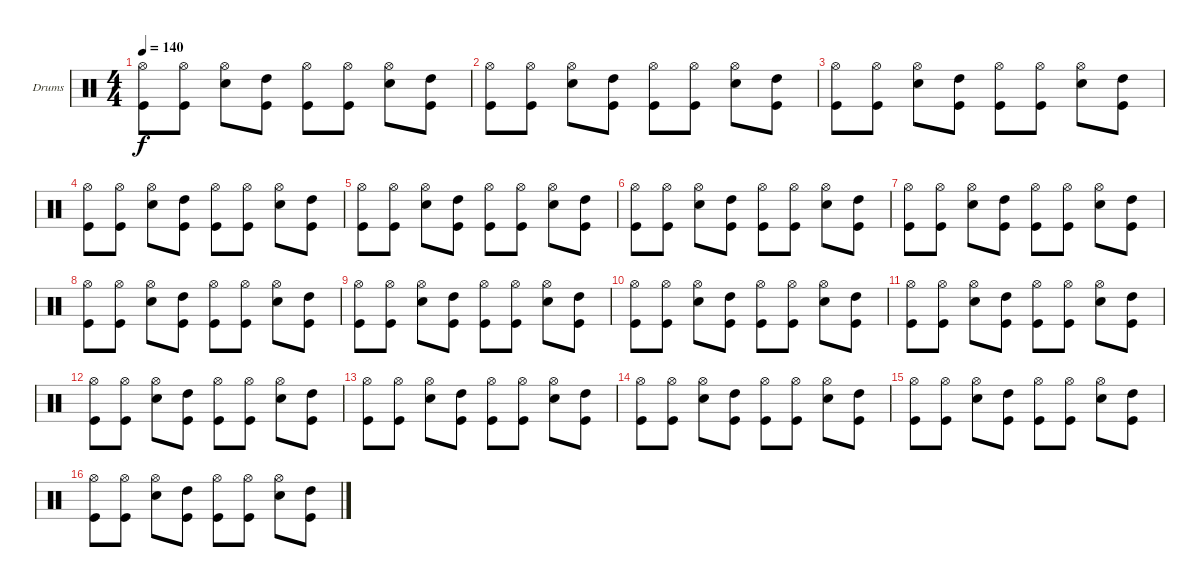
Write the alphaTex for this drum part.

\bracketExtendMode groupsimilarinstruments
\firstSystemTrackNameOrientation horizontal
\otherSystemsTrackNameOrientation horizontal
\track ("Drumkit" "Drums") {instrument percussion}
\staff {score}
\articulation defaults
\ts (4 4)
\tempo 140
\clef neutral
\ks c
("Hi-Hat (open)" "Kick (hit)").8{dy f} ("Hi-Hat (open)" "Kick (hit)").8 ("Hi-Hat (open)" "Snare (hit) 2").8 ("High Tom (hit)" "Kick (hit)").8 ("Hi-Hat (open)" "Kick (hit)").8 ("Hi-Hat (open)" "Kick (hit)").8 ("Hi-Hat (open)" "Snare (hit) 2").8 ("High Tom (hit)" "Kick (hit)").8 |
("Hi-Hat (open)" "Kick (hit)").8 ("Hi-Hat (open)" "Kick (hit)").8 ("Hi-Hat (open)" "Snare (hit) 2").8 ("High Tom (hit)" "Kick (hit)").8 ("Hi-Hat (open)" "Kick (hit)").8 ("Hi-Hat (open)" "Kick (hit)").8 ("Hi-Hat (open)" "Snare (hit) 2").8 ("High Tom (hit)" "Kick (hit)").8 |
("Hi-Hat (open)" "Kick (hit)").8 ("Hi-Hat (open)" "Kick (hit)").8 ("Hi-Hat (open)" "Snare (hit) 2").8 ("High Tom (hit)" "Kick (hit)").8 ("Hi-Hat (open)" "Kick (hit)").8 ("Hi-Hat (open)" "Kick (hit)").8 ("Hi-Hat (open)" "Snare (hit) 2").8 ("High Tom (hit)" "Kick (hit)").8 |
("Hi-Hat (open)" "Kick (hit)").8 ("Hi-Hat (open)" "Kick (hit)").8 ("Hi-Hat (open)" "Snare (hit) 2").8 ("High Tom (hit)" "Kick (hit)").8 ("Hi-Hat (open)" "Kick (hit)").8 ("Hi-Hat (open)" "Kick (hit)").8 ("Hi-Hat (open)" "Snare (hit) 2").8 ("High Tom (hit)" "Kick (hit)").8 |
("Hi-Hat (open)" "Kick (hit)").8 ("Hi-Hat (open)" "Kick (hit)").8 ("Hi-Hat (open)" "Snare (hit) 2").8 ("High Tom (hit)" "Kick (hit)").8 ("Hi-Hat (open)" "Kick (hit)").8 ("Hi-Hat (open)" "Kick (hit)").8 ("Hi-Hat (open)" "Snare (hit) 2").8 ("High Tom (hit)" "Kick (hit)").8 |
("Hi-Hat (open)" "Kick (hit)").8 ("Hi-Hat (open)" "Kick (hit)").8 ("Hi-Hat (open)" "Snare (hit) 2").8 ("High Tom (hit)" "Kick (hit)").8 ("Hi-Hat (open)" "Kick (hit)").8 ("Hi-Hat (open)" "Kick (hit)").8 ("Hi-Hat (open)" "Snare (hit) 2").8 ("High Tom (hit)" "Kick (hit)").8 |
("Hi-Hat (open)" "Kick (hit)").8 ("Hi-Hat (open)" "Kick (hit)").8 ("Hi-Hat (open)" "Snare (hit) 2").8 ("High Tom (hit)" "Kick (hit)").8 ("Hi-Hat (open)" "Kick (hit)").8 ("Hi-Hat (open)" "Kick (hit)").8 ("Hi-Hat (open)" "Snare (hit) 2").8 ("High Tom (hit)" "Kick (hit)").8 |
("Hi-Hat (open)" "Kick (hit)").8 ("Hi-Hat (open)" "Kick (hit)").8 ("Hi-Hat (open)" "Snare (hit) 2").8 ("High Tom (hit)" "Kick (hit)").8 ("Hi-Hat (open)" "Kick (hit)").8 ("Hi-Hat (open)" "Kick (hit)").8 ("Hi-Hat (open)" "Snare (hit) 2").8 ("High Tom (hit)" "Kick (hit)").8 |
("Hi-Hat (open)" "Kick (hit)").8 ("Hi-Hat (open)" "Kick (hit)").8 ("Hi-Hat (open)" "Snare (hit) 2").8 ("High Tom (hit)" "Kick (hit)").8 ("Hi-Hat (open)" "Kick (hit)").8 ("Hi-Hat (open)" "Kick (hit)").8 ("Hi-Hat (open)" "Snare (hit) 2").8 ("High Tom (hit)" "Kick (hit)").8 |
("Hi-Hat (open)" "Kick (hit)").8 ("Hi-Hat (open)" "Kick (hit)").8 ("Hi-Hat (open)" "Snare (hit) 2").8 ("High Tom (hit)" "Kick (hit)").8 ("Hi-Hat (open)" "Kick (hit)").8 ("Hi-Hat (open)" "Kick (hit)").8 ("Hi-Hat (open)" "Snare (hit) 2").8 ("High Tom (hit)" "Kick (hit)").8 |
("Hi-Hat (open)" "Kick (hit)").8 ("Hi-Hat (open)" "Kick (hit)").8 ("Hi-Hat (open)" "Snare (hit) 2").8 ("High Tom (hit)" "Kick (hit)").8 ("Hi-Hat (open)" "Kick (hit)").8 ("Hi-Hat (open)" "Kick (hit)").8 ("Hi-Hat (open)" "Snare (hit) 2").8 ("High Tom (hit)" "Kick (hit)").8 |
("Hi-Hat (open)" "Kick (hit)").8 ("Hi-Hat (open)" "Kick (hit)").8 ("Hi-Hat (open)" "Snare (hit) 2").8 ("High Tom (hit)" "Kick (hit)").8 ("Hi-Hat (open)" "Kick (hit)").8 ("Hi-Hat (open)" "Kick (hit)").8 ("Hi-Hat (open)" "Snare (hit) 2").8 ("High Tom (hit)" "Kick (hit)").8 |
("Hi-Hat (open)" "Kick (hit)").8 ("Hi-Hat (open)" "Kick (hit)").8 ("Hi-Hat (open)" "Snare (hit) 2").8 ("High Tom (hit)" "Kick (hit)").8 ("Hi-Hat (open)" "Kick (hit)").8 ("Hi-Hat (open)" "Kick (hit)").8 ("Hi-Hat (open)" "Snare (hit) 2").8 ("High Tom (hit)" "Kick (hit)").8 |
("Hi-Hat (open)" "Kick (hit)").8 ("Hi-Hat (open)" "Kick (hit)").8 ("Hi-Hat (open)" "Snare (hit) 2").8 ("High Tom (hit)" "Kick (hit)").8 ("Hi-Hat (open)" "Kick (hit)").8 ("Hi-Hat (open)" "Kick (hit)").8 ("Hi-Hat (open)" "Snare (hit) 2").8 ("High Tom (hit)" "Kick (hit)").8 |
("Hi-Hat (open)" "Kick (hit)").8 ("Hi-Hat (open)" "Kick (hit)").8 ("Hi-Hat (open)" "Snare (hit) 2").8 ("High Tom (hit)" "Kick (hit)").8 ("Hi-Hat (open)" "Kick (hit)").8 ("Hi-Hat (open)" "Kick (hit)").8 ("Hi-Hat (open)" "Snare (hit) 2").8 ("High Tom (hit)" "Kick (hit)").8 |
("Hi-Hat (open)" "Kick (hit)").8 ("Hi-Hat (open)" "Kick (hit)").8 ("Hi-Hat (open)" "Snare (hit) 2").8 ("High Tom (hit)" "Kick (hit)").8 ("Hi-Hat (open)" "Kick (hit)").8 ("Hi-Hat (open)" "Kick (hit)").8 ("Hi-Hat (open)" "Snare (hit) 2").8 ("High Tom (hit)" "Kick (hit)").8
